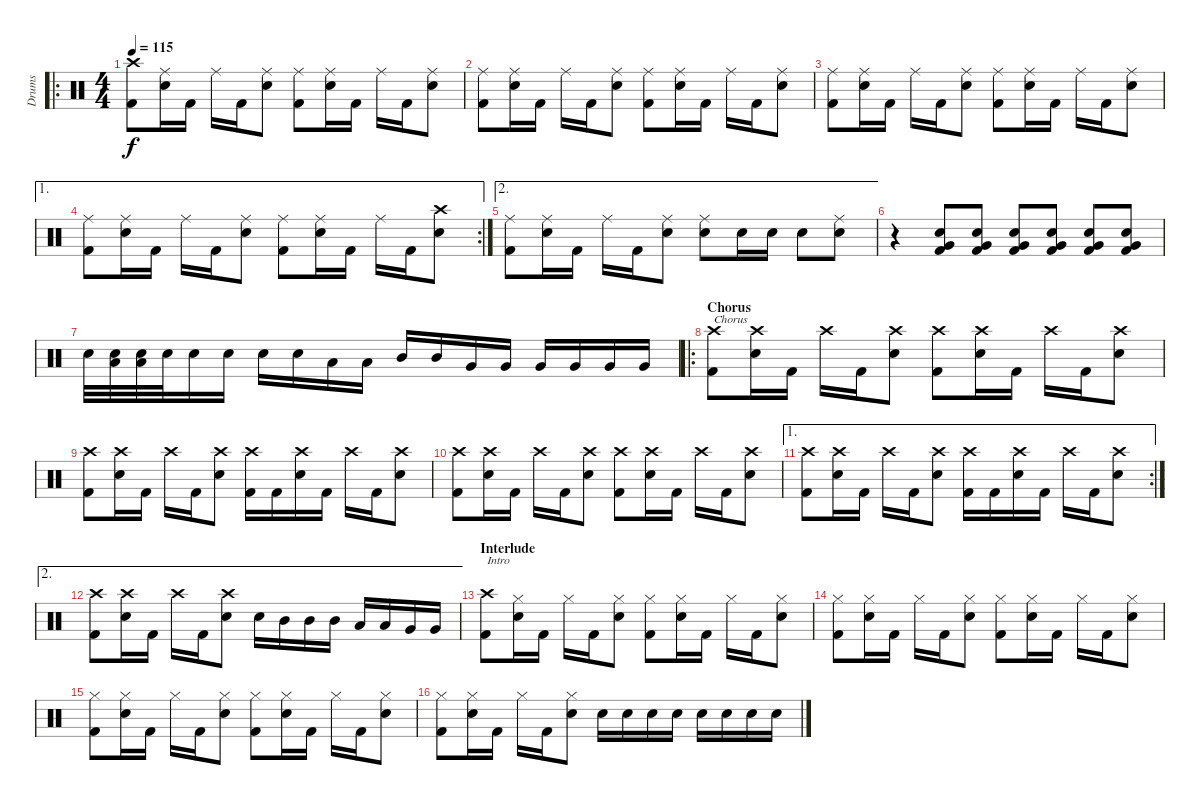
\track ("Drums" "Drums") {instrument percussion}
\staff {score}
\articulation defaults
\ro
\ts (4 4)
\tempo 115
\clef neutral
\ks c
("Kick (hit) 2" "Crash high (hit)").8{dy f} ("Ride (middle)" "Snare (hit) 2").16 "Kick (hit) 2".16 "Ride (middle)".16 "Kick (hit) 2".16 ("Ride (middle)" "Snare (hit) 2").8 ("Kick (hit) 2" "Ride (middle)").8 ("Ride (middle)" "Snare (hit) 2").16 "Kick (hit) 2".16 "Ride (middle)".16 "Kick (hit) 2".16 ("Ride (middle)" "Snare (hit) 2").8 |
("Kick (hit) 2" "Ride (middle)").8 ("Ride (middle)" "Snare (hit) 2").16 "Kick (hit) 2".16 "Ride (middle)".16 "Kick (hit) 2".16 ("Ride (middle)" "Snare (hit) 2").8 ("Kick (hit) 2" "Ride (middle)").8 ("Ride (middle)" "Snare (hit) 2").16 "Kick (hit) 2".16 "Ride (middle)".16 "Kick (hit) 2".16 ("Ride (middle)" "Snare (hit) 2").8 |
("Kick (hit) 2" "Ride (middle)").8 ("Ride (middle)" "Snare (hit) 2").16 "Kick (hit) 2".16 "Ride (middle)".16 "Kick (hit) 2".16 ("Ride (middle)" "Snare (hit) 2").8 ("Kick (hit) 2" "Ride (middle)").8 ("Ride (middle)" "Snare (hit) 2").16 "Kick (hit) 2".16 "Ride (middle)".16 "Kick (hit) 2".16 ("Ride (middle)" "Snare (hit) 2").8 |
\ae 1
\rc 2
("Kick (hit) 2" "Ride (middle)").8 ("Ride (middle)" "Snare (hit) 2").16 "Kick (hit) 2".16 "Ride (middle)".16 "Kick (hit) 2".16 ("Ride (middle)" "Snare (hit) 2").8 ("Kick (hit) 2" "Ride (middle)").8 ("Ride (middle)" "Snare (hit) 2").16 "Kick (hit) 2".16 "Ride (middle)".16 "Kick (hit) 2".16 ("Crash high (hit)" "Snare (hit) 2").8 |
\ae 2
("Kick (hit) 2" "Ride (middle)").8 ("Ride (middle)" "Snare (hit) 2").16 "Kick (hit) 2".16 "Ride (middle)".16 "Kick (hit) 2".16 ("Ride (middle)" "Snare (hit) 2").8 ("Ride (middle)" "Snare (hit) 2").8 "Snare (hit) 2".16 "Snare (hit) 2".16 "Snare (hit) 2".8 ("Ride (middle)" "Snare (hit) 2").8 |
r.4 ("Kick (hit) 2" "Snare (hit) 2" "Very Low Tom (hit)").8 ("Kick (hit) 2" "Snare (hit) 2" "Very Low Tom (hit)").8 ("Kick (hit) 2" "Snare (hit) 2" "Very Low Tom (hit)").8 ("Kick (hit) 2" "Snare (hit) 2" "Very Low Tom (hit)").8 ("Kick (hit) 2" "Snare (hit) 2" "Very Low Tom (hit)").8 ("Kick (hit) 2" "Snare (hit) 2" "Very Low Tom (hit)").8 |
"Snare (hit) 2".32 ("Snare (hit) 2" "Low Tom (hit)").32 ("Snare (hit) 2" "Low Tom (hit)").32 "Snare (hit) 2".32 "Snare (hit) 2".16 "Snare (hit) 2".16 "Snare (hit) 2".16 "Snare (hit) 2".16 "Low Tom (hit)".16 "Low Tom (hit)".16 "Mid Tom (hit)".16 "Mid Tom (hit)".16 "Very Low Tom (hit)".16 "Very Low Tom (hit)".16 "Very Low Tom (hit)".16 "Very Low Tom (hit)".16 "Very Low Tom (hit)".16 "Very Low Tom (hit)".16 |
\ro
\section ("" "Chorus")
("Kick (hit) 2" "Crash high (hit)").8{txt "Chorus"} ("Crash high (hit)" "Snare (hit) 2").16 "Kick (hit) 2".16 "Crash high (hit)".16 "Kick (hit) 2".16 ("Crash high (hit)" "Snare (hit) 2").8 ("Kick (hit) 2" "Crash high (hit)").8 ("Crash high (hit)" "Snare (hit) 2").16 "Kick (hit) 2".16 "Crash high (hit)".16 "Kick (hit) 2".16 ("Crash high (hit)" "Snare (hit) 2").8 |
("Kick (hit) 2" "Crash high (hit)").8 ("Crash high (hit)" "Snare (hit) 2").16 "Kick (hit) 2".16 "Crash high (hit)".16 "Kick (hit) 2".16 ("Crash high (hit)" "Snare (hit) 2").8 ("Kick (hit) 2" "Crash high (hit)").16 "Kick (hit) 2".16 ("Crash high (hit)" "Snare (hit) 2").16 "Kick (hit) 2".16 "Crash high (hit)".16 "Kick (hit) 2".16 ("Crash high (hit)" "Snare (hit) 2").8 |
("Kick (hit) 2" "Crash high (hit)").8 ("Crash high (hit)" "Snare (hit) 2").16 "Kick (hit) 2".16 "Crash high (hit)".16 "Kick (hit) 2".16 ("Crash high (hit)" "Snare (hit) 2").8 ("Kick (hit) 2" "Crash high (hit)").8 ("Crash high (hit)" "Snare (hit) 2").16 "Kick (hit) 2".16 "Crash high (hit)".16 "Kick (hit) 2".16 ("Crash high (hit)" "Snare (hit) 2").8 |
\ae 1
\rc 2
("Kick (hit) 2" "Crash high (hit)").8 ("Crash high (hit)" "Snare (hit) 2").16 "Kick (hit) 2".16 "Crash high (hit)".16 "Kick (hit) 2".16 ("Crash high (hit)" "Snare (hit) 2").8 ("Kick (hit) 2" "Crash high (hit)").16 "Kick (hit) 2".16 ("Crash high (hit)" "Snare (hit) 2").16 "Kick (hit) 2".16 "Crash high (hit)".16 "Kick (hit) 2".16 ("Crash high (hit)" "Snare (hit) 2").8 |
\ae 2
("Kick (hit) 2" "Crash high (hit)").8 ("Crash high (hit)" "Snare (hit) 2").16 "Kick (hit) 2".16 "Crash high (hit)".16 "Kick (hit) 2".16 ("Crash high (hit)" "Snare (hit) 2").8 "Snare (hit) 2".16 "Mid Tom (hit)".16 "Mid Tom (hit)".16 "Mid Tom (hit)".16 "Low Tom (hit)".16 "Low Tom (hit)".16 "Very Low Tom (hit)".16 "Very Low Tom (hit)".16 |
\section ("" "Interlude")
("Kick (hit) 2" "Crash high (hit)").8{txt "Intro"} ("Snare (hit) 2" "Hi-Hat (closed)").16 "Kick (hit) 2".16 "Hi-Hat (closed)".16 "Kick (hit) 2".16 ("Snare (hit) 2" "Hi-Hat (closed)").8 ("Kick (hit) 2" "Hi-Hat (closed)").8 ("Snare (hit) 2" "Hi-Hat (closed)").16 "Kick (hit) 2".16 "Hi-Hat (closed)".16 "Kick (hit) 2".16 ("Snare (hit) 2" "Hi-Hat (closed)").8 |
("Kick (hit) 2" "Hi-Hat (closed)").8 ("Snare (hit) 2" "Hi-Hat (closed)").16 "Kick (hit) 2".16 "Hi-Hat (closed)".16 "Kick (hit) 2".16 ("Snare (hit) 2" "Hi-Hat (closed)").8 ("Kick (hit) 2" "Hi-Hat (closed)").8 ("Snare (hit) 2" "Hi-Hat (closed)").16 "Kick (hit) 2".16 "Hi-Hat (closed)".16 "Kick (hit) 2".16 ("Snare (hit) 2" "Hi-Hat (closed)").8 |
("Kick (hit) 2" "Hi-Hat (closed)").8 ("Snare (hit) 2" "Hi-Hat (closed)").16 "Kick (hit) 2".16 "Hi-Hat (closed)".16 "Kick (hit) 2".16 ("Snare (hit) 2" "Hi-Hat (closed)").8 ("Kick (hit) 2" "Hi-Hat (closed)").8 ("Snare (hit) 2" "Hi-Hat (closed)").16 "Kick (hit) 2".16 "Hi-Hat (closed)".16 "Kick (hit) 2".16 ("Snare (hit) 2" "Hi-Hat (closed)").8 |
("Kick (hit) 2" "Hi-Hat (closed)").8 ("Snare (hit) 2" "Hi-Hat (closed)").16 "Kick (hit) 2".16 "Hi-Hat (closed)".16 "Kick (hit) 2".16 ("Snare (hit) 2" "Hi-Hat (closed)").8 "Snare (hit) 2".16 "Snare (hit) 2".16 "Snare (hit) 2".16 "Snare (hit) 2".16 "Snare (hit) 2".16 "Snare (hit) 2".16 "Snare (hit) 2".16 "Snare (hit) 2".16
